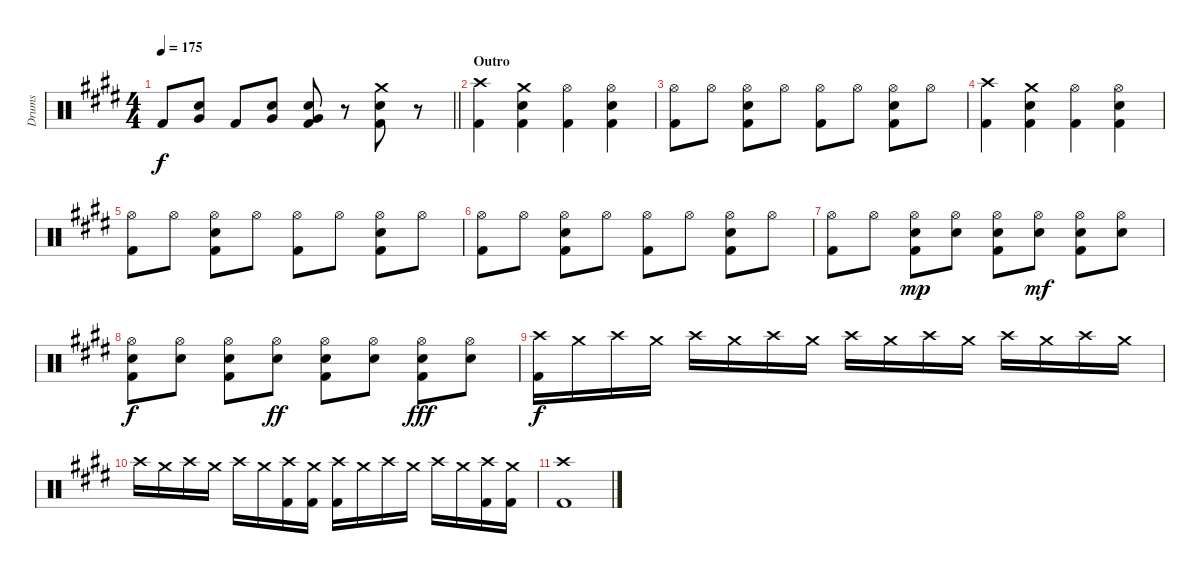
\track ("Drums" "Drums") {instrument percussion}
\staff {score}
\articulation defaults
\ts (4 4)
\tempo 175
\clef neutral
\barLineRight lightlight
\ks e "Kick (hit) 2".8{dy f}
("Electric Snare (hit)" "Very Low Tom (hit)").8 "Kick (hit) 2".8 ("Electric Snare (hit)" "Very Low Tom (hit)").8 ("Electric Snare (hit)" "Very Low Tom (hit)" "Kick (hit) 2").8 r.8 ("Crash medium (hit)" "Electric Snare (hit)" "Kick (hit) 2").8 r.8 |
\section ("" "Outro")
("Crash high (hit)" "Kick (hit) 2").4 ("Crash medium (hit)" "Electric Snare (hit)" "Kick (hit) 2").4 ("Hi-Hat (open)" "Kick (hit) 2").4 ("Hi-Hat (open)" "Electric Snare (hit)" "Kick (hit) 2").4 |
("Hi-Hat (open)" "Kick (hit) 2").8 "Hi-Hat (open)".8 ("Hi-Hat (open)" "Electric Snare (hit)" "Kick (hit) 2").8 "Hi-Hat (open)".8 ("Hi-Hat (open)" "Kick (hit) 2").8 "Hi-Hat (open)".8 ("Hi-Hat (open)" "Electric Snare (hit)" "Kick (hit) 2").8 "Hi-Hat (open)".8 |
("Crash high (hit)" "Kick (hit) 2").4 ("Crash medium (hit)" "Electric Snare (hit)" "Kick (hit) 2").4 ("Hi-Hat (open)" "Kick (hit) 2").4 ("Hi-Hat (open)" "Electric Snare (hit)" "Kick (hit) 2").4 |
("Hi-Hat (open)" "Kick (hit) 2").8 "Hi-Hat (open)".8 ("Hi-Hat (open)" "Electric Snare (hit)" "Kick (hit) 2").8 "Hi-Hat (open)".8 ("Hi-Hat (open)" "Kick (hit) 2").8 "Hi-Hat (open)".8 ("Hi-Hat (open)" "Electric Snare (hit)" "Kick (hit) 2").8 "Hi-Hat (open)".8 |
("Hi-Hat (open)" "Kick (hit) 2").8 "Hi-Hat (open)".8 ("Hi-Hat (open)" "Electric Snare (hit)" "Kick (hit) 2").8 "Hi-Hat (open)".8 ("Hi-Hat (open)" "Kick (hit) 2").8 "Hi-Hat (open)".8 ("Hi-Hat (open)" "Electric Snare (hit)" "Kick (hit) 2").8 "Hi-Hat (open)".8 |
("Hi-Hat (open)" "Kick (hit) 2").8 "Hi-Hat (open)".8 ("Hi-Hat (open)" "Electric Snare (hit)" "Kick (hit) 2").8{dy mp} ("Hi-Hat (open)" "Electric Snare (hit)").8 ("Hi-Hat (open)" "Electric Snare (hit)" "Kick (hit) 2").8 ("Hi-Hat (open)" "Electric Snare (hit)").8{dy mf} ("Hi-Hat (open)" "Electric Snare (hit)" "Kick (hit) 2").8 ("Hi-Hat (open)" "Electric Snare (hit)").8 |
("Hi-Hat (open)" "Electric Snare (hit)" "Kick (hit) 2").8{dy f} ("Hi-Hat (open)" "Electric Snare (hit)").8 ("Hi-Hat (open)" "Electric Snare (hit)" "Kick (hit) 2").8 ("Hi-Hat (open)" "Electric Snare (hit)").8{dy ff} ("Hi-Hat (open)" "Electric Snare (hit)" "Kick (hit) 2").8 ("Hi-Hat (open)" "Electric Snare (hit)").8 ("Hi-Hat (open)" "Electric Snare (hit)" "Kick (hit) 2").8{dy fff} ("Hi-Hat (open)" "Electric Snare (hit)").8 |
("Crash high (hit)" "Kick (hit) 2").16{dy f} "Crash medium (hit)".16 "Crash high (hit)".16 "Crash medium (hit)".16 "Crash high (hit)".16 "Crash medium (hit)".16 "Crash high (hit)".16 "Crash medium (hit)".16 "Crash high (hit)".16 "Crash medium (hit)".16 "Crash high (hit)".16 "Crash medium (hit)".16 "Crash high (hit)".16 "Crash medium (hit)".16 "Crash high (hit)".16 "Crash medium (hit)".16 |
"Crash high (hit)".16 "Crash medium (hit)".16 "Crash high (hit)".16 "Crash medium (hit)".16 "Crash high (hit)".16 "Crash medium (hit)".16 ("Crash high (hit)" "Kick (hit) 2").16 ("Crash medium (hit)" "Kick (hit) 2").16 ("Crash high (hit)" "Kick (hit) 2").16 "Crash medium (hit)".16 "Crash high (hit)".16 "Crash medium (hit)".16 "Crash high (hit)".16 "Crash medium (hit)".16 ("Crash high (hit)" "Kick (hit) 2").16 ("Crash medium (hit)" "Kick (hit) 2").16 |
("Crash high (hit)" "Kick (hit) 2").1
